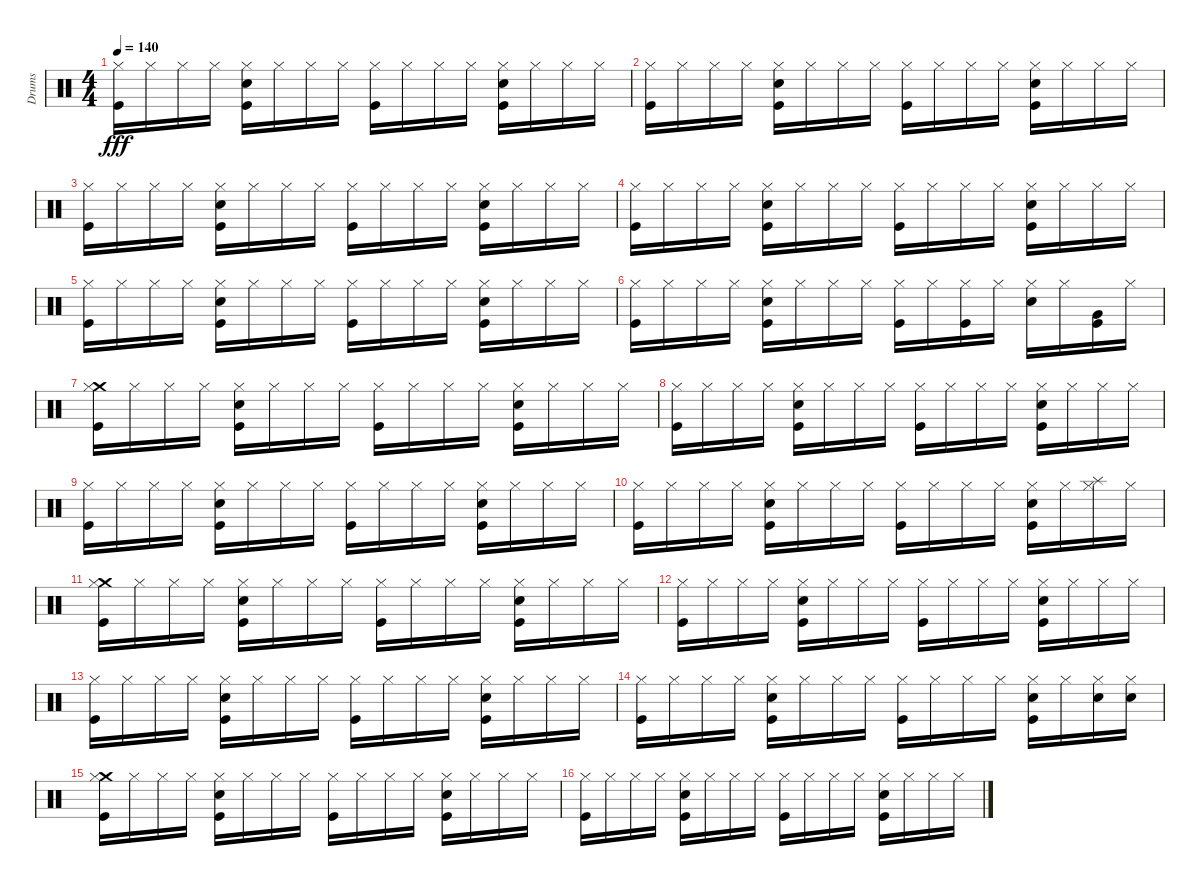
\track ("Drums" "Drums") {instrument percussion}
\staff {score}
\articulation defaults
\ts (4 4)
\tempo 140
\clef neutral
\ks c
("Hi-Hat (closed)" "Kick (hit)").16{dy fff} "Hi-Hat (closed)".16 "Hi-Hat (closed)".16 "Hi-Hat (closed)".16 ("Hi-Hat (closed)" "Electric Snare (hit)" "Kick (hit)").16 "Hi-Hat (closed)".16 "Hi-Hat (closed)".16 "Hi-Hat (closed)".16 ("Hi-Hat (closed)" "Kick (hit)").16 "Hi-Hat (closed)".16 "Hi-Hat (closed)".16 "Hi-Hat (closed)".16 ("Hi-Hat (closed)" "Electric Snare (hit)" "Kick (hit)").16 "Hi-Hat (closed)".16 "Hi-Hat (closed)".16 "Hi-Hat (closed)".16 |
("Hi-Hat (closed)" "Kick (hit)").16 "Hi-Hat (closed)".16 "Hi-Hat (closed)".16 "Hi-Hat (closed)".16 ("Hi-Hat (closed)" "Electric Snare (hit)" "Kick (hit)").16 "Hi-Hat (closed)".16 "Hi-Hat (closed)".16 "Hi-Hat (closed)".16 ("Hi-Hat (closed)" "Kick (hit)").16 "Hi-Hat (closed)".16 "Hi-Hat (closed)".16 "Hi-Hat (closed)".16 ("Hi-Hat (closed)" "Electric Snare (hit)" "Kick (hit)").16 "Hi-Hat (closed)".16 "Hi-Hat (closed)".16 "Hi-Hat (closed)".16 |
("Hi-Hat (closed)" "Kick (hit)").16 "Hi-Hat (closed)".16 "Hi-Hat (closed)".16 "Hi-Hat (closed)".16 ("Hi-Hat (closed)" "Electric Snare (hit)" "Kick (hit)").16 "Hi-Hat (closed)".16 "Hi-Hat (closed)".16 "Hi-Hat (closed)".16 ("Hi-Hat (closed)" "Kick (hit)").16 "Hi-Hat (closed)".16 "Hi-Hat (closed)".16 "Hi-Hat (closed)".16 ("Hi-Hat (closed)" "Electric Snare (hit)" "Kick (hit)").16 "Hi-Hat (closed)".16 "Hi-Hat (closed)".16 "Hi-Hat (closed)".16 |
("Hi-Hat (closed)" "Kick (hit)").16 "Hi-Hat (closed)".16 "Hi-Hat (closed)".16 "Hi-Hat (closed)".16 ("Hi-Hat (closed)" "Electric Snare (hit)" "Kick (hit)").16 "Hi-Hat (closed)".16 "Hi-Hat (closed)".16 "Hi-Hat (closed)".16 ("Hi-Hat (closed)" "Kick (hit)").16 "Hi-Hat (closed)".16 "Hi-Hat (closed)".16 "Hi-Hat (closed)".16 ("Hi-Hat (closed)" "Electric Snare (hit)" "Kick (hit)").16 "Hi-Hat (closed)".16 "Hi-Hat (closed)".16 "Hi-Hat (closed)".16 |
("Hi-Hat (closed)" "Kick (hit)").16 "Hi-Hat (closed)".16 "Hi-Hat (closed)".16 "Hi-Hat (closed)".16 ("Hi-Hat (closed)" "Electric Snare (hit)" "Kick (hit)").16 "Hi-Hat (closed)".16 "Hi-Hat (closed)".16 "Hi-Hat (closed)".16 ("Hi-Hat (closed)" "Kick (hit)").16 "Hi-Hat (closed)".16 "Hi-Hat (closed)".16 "Hi-Hat (closed)".16 ("Hi-Hat (closed)" "Electric Snare (hit)" "Kick (hit)").16 "Hi-Hat (closed)".16 "Hi-Hat (closed)".16 "Hi-Hat (closed)".16 |
("Hi-Hat (closed)" "Kick (hit)").16 "Hi-Hat (closed)".16 "Hi-Hat (closed)".16 "Hi-Hat (closed)".16 ("Hi-Hat (closed)" "Electric Snare (hit)" "Kick (hit)").16 "Hi-Hat (closed)".16 "Hi-Hat (closed)".16 "Hi-Hat (closed)".16 ("Hi-Hat (closed)" "Kick (hit)").16 "Hi-Hat (closed)".16 ("Hi-Hat (closed)" "Kick (hit)").16 "Hi-Hat (closed)".16 ("Hi-Hat (closed)" "Electric Snare (hit)").16 "Hi-Hat (closed)".16 ("Very Low Tom (hit)" "Kick (hit)").16 "Hi-Hat (closed)".16 |
("Crash medium (hit)" "Hi-Hat (closed)" "Kick (hit)").16 "Hi-Hat (closed)".16 "Hi-Hat (closed)".16 "Hi-Hat (closed)".16 ("Hi-Hat (closed)" "Electric Snare (hit)" "Kick (hit)").16 "Hi-Hat (closed)".16 "Hi-Hat (closed)".16 "Hi-Hat (closed)".16 ("Hi-Hat (closed)" "Kick (hit)").16 "Hi-Hat (closed)".16 "Hi-Hat (closed)".16 "Hi-Hat (closed)".16 ("Hi-Hat (closed)" "Electric Snare (hit)" "Kick (hit)").16 "Hi-Hat (closed)".16 "Hi-Hat (closed)".16 "Hi-Hat (closed)".16 |
("Hi-Hat (closed)" "Kick (hit)").16 "Hi-Hat (closed)".16 "Hi-Hat (closed)".16 "Hi-Hat (closed)".16 ("Hi-Hat (closed)" "Electric Snare (hit)" "Kick (hit)").16 "Hi-Hat (closed)".16 "Hi-Hat (closed)".16 "Hi-Hat (closed)".16 ("Hi-Hat (closed)" "Kick (hit)").16 "Hi-Hat (closed)".16 "Hi-Hat (closed)".16 "Hi-Hat (closed)".16 ("Hi-Hat (closed)" "Electric Snare (hit)" "Kick (hit)").16 "Hi-Hat (closed)".16 "Hi-Hat (closed)".16 "Hi-Hat (closed)".16 |
("Hi-Hat (closed)" "Kick (hit)").16 "Hi-Hat (closed)".16 "Hi-Hat (closed)".16 "Hi-Hat (closed)".16 ("Hi-Hat (closed)" "Electric Snare (hit)" "Kick (hit)").16 "Hi-Hat (closed)".16 "Hi-Hat (closed)".16 "Hi-Hat (closed)".16 ("Hi-Hat (closed)" "Kick (hit)").16 "Hi-Hat (closed)".16 "Hi-Hat (closed)".16 "Hi-Hat (closed)".16 ("Hi-Hat (closed)" "Electric Snare (hit)" "Kick (hit)").16 "Hi-Hat (closed)".16 "Hi-Hat (closed)".16 "Hi-Hat (closed)".16 |
("Hi-Hat (closed)" "Kick (hit)").16 "Hi-Hat (closed)".16 "Hi-Hat (closed)".16 "Hi-Hat (closed)".16 ("Hi-Hat (closed)" "Electric Snare (hit)" "Kick (hit)").16 "Hi-Hat (closed)".16 "Hi-Hat (closed)".16 "Hi-Hat (closed)".16 ("Hi-Hat (closed)" "Kick (hit)").16 "Hi-Hat (closed)".16 "Hi-Hat (closed)".16 "Hi-Hat (closed)".16 ("Hi-Hat (closed)" "Electric Snare (hit)" "Kick (hit)").16 "Hi-Hat (closed)".16 ("Splash (hit)" "Hi-Hat (closed)").16 "Hi-Hat (closed)".16 |
("Crash medium (hit)" "Hi-Hat (closed)" "Kick (hit)").16 "Hi-Hat (closed)".16 "Hi-Hat (closed)".16 "Hi-Hat (closed)".16 ("Hi-Hat (closed)" "Electric Snare (hit)" "Kick (hit)").16 "Hi-Hat (closed)".16 "Hi-Hat (closed)".16 "Hi-Hat (closed)".16 ("Hi-Hat (closed)" "Kick (hit)").16 "Hi-Hat (closed)".16 "Hi-Hat (closed)".16 "Hi-Hat (closed)".16 ("Hi-Hat (closed)" "Electric Snare (hit)" "Kick (hit)").16 "Hi-Hat (closed)".16 "Hi-Hat (closed)".16 "Hi-Hat (closed)".16 |
("Hi-Hat (closed)" "Kick (hit)").16 "Hi-Hat (closed)".16 "Hi-Hat (closed)".16 "Hi-Hat (closed)".16 ("Hi-Hat (closed)" "Electric Snare (hit)" "Kick (hit)").16 "Hi-Hat (closed)".16 "Hi-Hat (closed)".16 "Hi-Hat (closed)".16 ("Hi-Hat (closed)" "Kick (hit)").16 "Hi-Hat (closed)".16 "Hi-Hat (closed)".16 "Hi-Hat (closed)".16 ("Hi-Hat (closed)" "Electric Snare (hit)" "Kick (hit)").16 "Hi-Hat (closed)".16 "Hi-Hat (closed)".16 "Hi-Hat (closed)".16 |
("Hi-Hat (closed)" "Kick (hit)").16 "Hi-Hat (closed)".16 "Hi-Hat (closed)".16 "Hi-Hat (closed)".16 ("Hi-Hat (closed)" "Electric Snare (hit)" "Kick (hit)").16 "Hi-Hat (closed)".16 "Hi-Hat (closed)".16 "Hi-Hat (closed)".16 ("Hi-Hat (closed)" "Kick (hit)").16 "Hi-Hat (closed)".16 "Hi-Hat (closed)".16 "Hi-Hat (closed)".16 ("Hi-Hat (closed)" "Electric Snare (hit)" "Kick (hit)").16 "Hi-Hat (closed)".16 "Hi-Hat (closed)".16 "Hi-Hat (closed)".16 |
("Hi-Hat (closed)" "Kick (hit)").16 "Hi-Hat (closed)".16 "Hi-Hat (closed)".16 "Hi-Hat (closed)".16 ("Hi-Hat (closed)" "Electric Snare (hit)" "Kick (hit)").16 "Hi-Hat (closed)".16 "Hi-Hat (closed)".16 "Hi-Hat (closed)".16 ("Hi-Hat (closed)" "Kick (hit)").16 "Hi-Hat (closed)".16 "Hi-Hat (closed)".16 "Hi-Hat (closed)".16 ("Hi-Hat (closed)" "Electric Snare (hit)" "Kick (hit)").16 "Hi-Hat (closed)".16 ("Hi-Hat (closed)" "Electric Snare (hit)").16 ("Hi-Hat (closed)" "Electric Snare (hit)").16 |
("Crash medium (hit)" "Hi-Hat (closed)" "Kick (hit)").16 "Hi-Hat (closed)".16 "Hi-Hat (closed)".16 "Hi-Hat (closed)".16 ("Hi-Hat (closed)" "Electric Snare (hit)" "Kick (hit)").16 "Hi-Hat (closed)".16 "Hi-Hat (closed)".16 "Hi-Hat (closed)".16 ("Hi-Hat (closed)" "Kick (hit)").16 "Hi-Hat (closed)".16 "Hi-Hat (closed)".16 "Hi-Hat (closed)".16 ("Hi-Hat (closed)" "Electric Snare (hit)" "Kick (hit)").16 "Hi-Hat (closed)".16 "Hi-Hat (closed)".16 "Hi-Hat (closed)".16 |
("Hi-Hat (closed)" "Kick (hit)").16 "Hi-Hat (closed)".16 "Hi-Hat (closed)".16 "Hi-Hat (closed)".16 ("Hi-Hat (closed)" "Electric Snare (hit)" "Kick (hit)").16 "Hi-Hat (closed)".16 "Hi-Hat (closed)".16 "Hi-Hat (closed)".16 ("Hi-Hat (closed)" "Kick (hit)").16 "Hi-Hat (closed)".16 "Hi-Hat (closed)".16 "Hi-Hat (closed)".16 ("Hi-Hat (closed)" "Electric Snare (hit)" "Kick (hit)").16 "Hi-Hat (closed)".16 "Hi-Hat (closed)".16 "Hi-Hat (closed)".16
